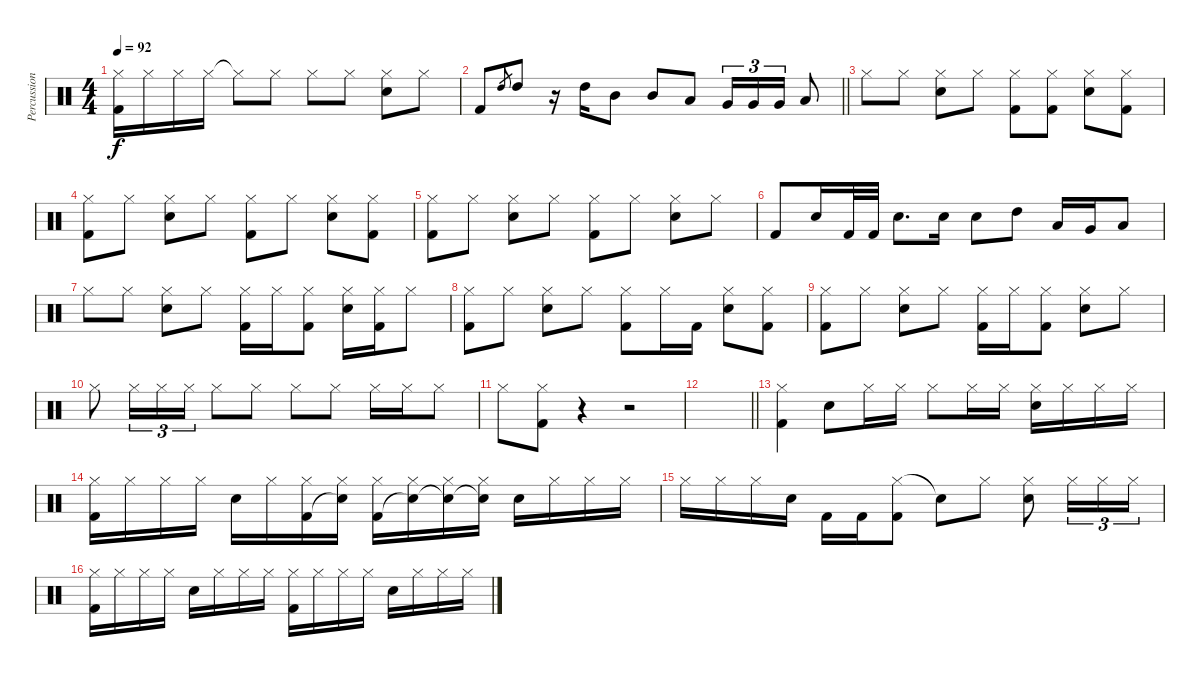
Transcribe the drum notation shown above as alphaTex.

\track ("Percussion" "Percussion") {instrument percussion}
\staff {score}
\articulation defaults
\ts (4 4)
\tempo 92
\clef neutral
\ks c
("Hi-Hat (closed)" "Kick (hit) 2").16{dy f} "Hi-Hat (closed)".16 "Hi-Hat (closed)".16 "Hi-Hat (closed)".16 "Hi-Hat (closed)"{t}.8 "Hi-Hat (closed)".8 "Hi-Hat (closed)".8 "Hi-Hat (closed)".8 ("Hi-Hat (closed)" "Snare (hit) 2").8 "Hi-Hat (closed)".8 |
\barLineRight lightlight "Kick (hit) 2".8 "High Tom (hit)".8{gr} "High Tom (hit)".8
r.16 "High Tom (hit)".16 "Mid Tom (hit)".8 "Mid Tom (hit)".8 "Low Tom (hit)".8 "Very Low Tom (hit)".16{tu (3 2)} "Very Low Tom (hit)".16{tu (3 2)} "Very Low Tom (hit)".16{tu (3 2)} "Low Floor Tom (hit)".8 |
"Hi-Hat (closed)".8 "Hi-Hat (closed)".8 ("Hi-Hat (closed)" "Snare (hit) 2").8 "Hi-Hat (closed)".8 ("Hi-Hat (closed)" "Kick (hit) 2").8 ("Hi-Hat (closed)" "Kick (hit) 2").8 ("Hi-Hat (closed)" "Snare (hit) 2").8 ("Hi-Hat (closed)" "Kick (hit) 2").8 |
("Hi-Hat (closed)" "Kick (hit) 2").8 "Hi-Hat (closed)".8 ("Hi-Hat (closed)" "Snare (hit) 2").8 "Hi-Hat (closed)".8 ("Hi-Hat (closed)" "Kick (hit) 2").8 "Hi-Hat (closed)".8 ("Hi-Hat (closed)" "Snare (hit) 2").8 ("Hi-Hat (closed)" "Kick (hit) 2").8 |
("Hi-Hat (closed)" "Kick (hit) 2").8 "Hi-Hat (closed)".8 ("Hi-Hat (closed)" "Snare (hit) 2").8 "Hi-Hat (closed)".8 ("Hi-Hat (closed)" "Kick (hit) 2").8 "Hi-Hat (closed)".8 ("Hi-Hat (closed)" "Snare (hit) 2").8 "Hi-Hat (closed)".8 |
"Kick (hit) 2".8 "Snare (hit) 2".16 "Kick (hit) 2".32 "Kick (hit) 2".32 "Snare (hit) 2".8{d} "Snare (hit) 2".16 "Snare (hit) 2".8 "High Tom (hit)".8 "Low Tom (hit)".16 "Very Low Tom (hit)".16 "Low Floor Tom (hit)".8 |
"Hi-Hat (closed)".8 "Hi-Hat (closed)".8 ("Hi-Hat (closed)" "Snare (hit) 2").8 "Hi-Hat (closed)".8 ("Hi-Hat (closed)" "Kick (hit) 2").16 "Hi-Hat (closed)".16 ("Hi-Hat (closed)" "Kick (hit) 2").8 ("Hi-Hat (closed)" "Snare (hit) 2").16 ("Hi-Hat (closed)" "Kick (hit) 2").16 "Hi-Hat (closed)".8 |
("Hi-Hat (closed)" "Kick (hit) 2").8 "Hi-Hat (closed)".8 ("Hi-Hat (closed)" "Snare (hit) 2").8 "Hi-Hat (closed)".8 ("Hi-Hat (closed)" "Kick (hit) 2").8 "Hi-Hat (closed)".16 "Kick (hit) 2".16 ("Hi-Hat (closed)" "Snare (hit) 2").8 ("Hi-Hat (closed)" "Kick (hit) 2").8 |
("Hi-Hat (closed)" "Kick (hit) 2").8 "Hi-Hat (closed)".8 ("Hi-Hat (closed)" "Snare (hit) 2").8 "Hi-Hat (closed)".8 ("Hi-Hat (closed)" "Kick (hit) 2").16 "Hi-Hat (closed)".16 ("Hi-Hat (closed)" "Kick (hit) 2").8 ("Hi-Hat (closed)" "Snare (hit) 2").8 "Hi-Hat (closed)".8 |
"Hi-Hat (closed)".8 "Hi-Hat (closed)".16{tu (3 2)} "Hi-Hat (closed)".16{tu (3 2)} "Hi-Hat (closed)".16{tu (3 2)} "Hi-Hat (closed)".8 "Hi-Hat (closed)".8 "Hi-Hat (closed)".8 "Hi-Hat (closed)".8 "Hi-Hat (closed)".16 "Hi-Hat (closed)".16 "Hi-Hat (closed)".8 |
"Hi-Hat (closed)".8 ("Hi-Hat (closed)" "Kick (hit) 2").8 r.4 r.2 |
\barLineRight lightlight
|
("Hi-Hat (closed)" "Kick (hit) 2").4 "Snare (hit) 2".8 "Hi-Hat (closed)".16 "Hi-Hat (closed)".16 "Hi-Hat (closed)".8 "Hi-Hat (closed)".16 "Hi-Hat (closed)".16 ("Hi-Hat (closed)" "Snare (hit) 2").16 "Hi-Hat (closed)".16 "Hi-Hat (closed)".16 "Hi-Hat (closed)".16 |
("Hi-Hat (closed)" "Kick (hit) 2").16 "Hi-Hat (closed)".16 "Hi-Hat (closed)".16 "Hi-Hat (closed)".16 "Snare (hit) 2".16 "Hi-Hat (closed)".16 ("Hi-Hat (closed)" "Kick (hit) 2").16 ("Hi-Hat (closed)" "Snare (hit)"{t}).16 ("Hi-Hat (closed)" "Kick (hit) 2").16 ("Hi-Hat (closed)" "Snare (hit)"{t}).16 ("Hi-Hat (closed)" "Snare (hit)"{t}).16 ("Hi-Hat (closed)" "Snare (hit)"{t}).16 "Snare (hit) 2".16 "Hi-Hat (closed)".16 "Hi-Hat (closed)".16 "Hi-Hat (closed)".16 |
"Hi-Hat (closed)".16 "Hi-Hat (closed)".16 "Hi-Hat (closed)".16 "Snare (hit) 2".16 "Kick (hit) 2".16 "Kick (hit) 2".16 ("Hi-Hat (closed)" "Kick (hit) 2").8 "Snare (hit)"{t}.8 "Hi-Hat (closed)".8 ("Hi-Hat (closed)" "Snare (hit) 2").8 "Hi-Hat (closed)".16{tu (3 2)} "Hi-Hat (closed)".16{tu (3 2)} "Hi-Hat (closed)".16{tu (3 2)} |
("Hi-Hat (closed)" "Kick (hit) 2").16 "Hi-Hat (closed)".16 "Hi-Hat (closed)".16 "Hi-Hat (closed)".16 "Snare (hit) 2".16 "Hi-Hat (closed)".16 "Hi-Hat (closed)".16 "Hi-Hat (closed)".16 ("Hi-Hat (closed)" "Kick (hit) 2").16 "Hi-Hat (closed)".16 "Hi-Hat (closed)".16 "Hi-Hat (closed)".16 "Snare (hit) 2".16 "Hi-Hat (closed)".16 "Hi-Hat (closed)".16 "Hi-Hat (closed)".16
